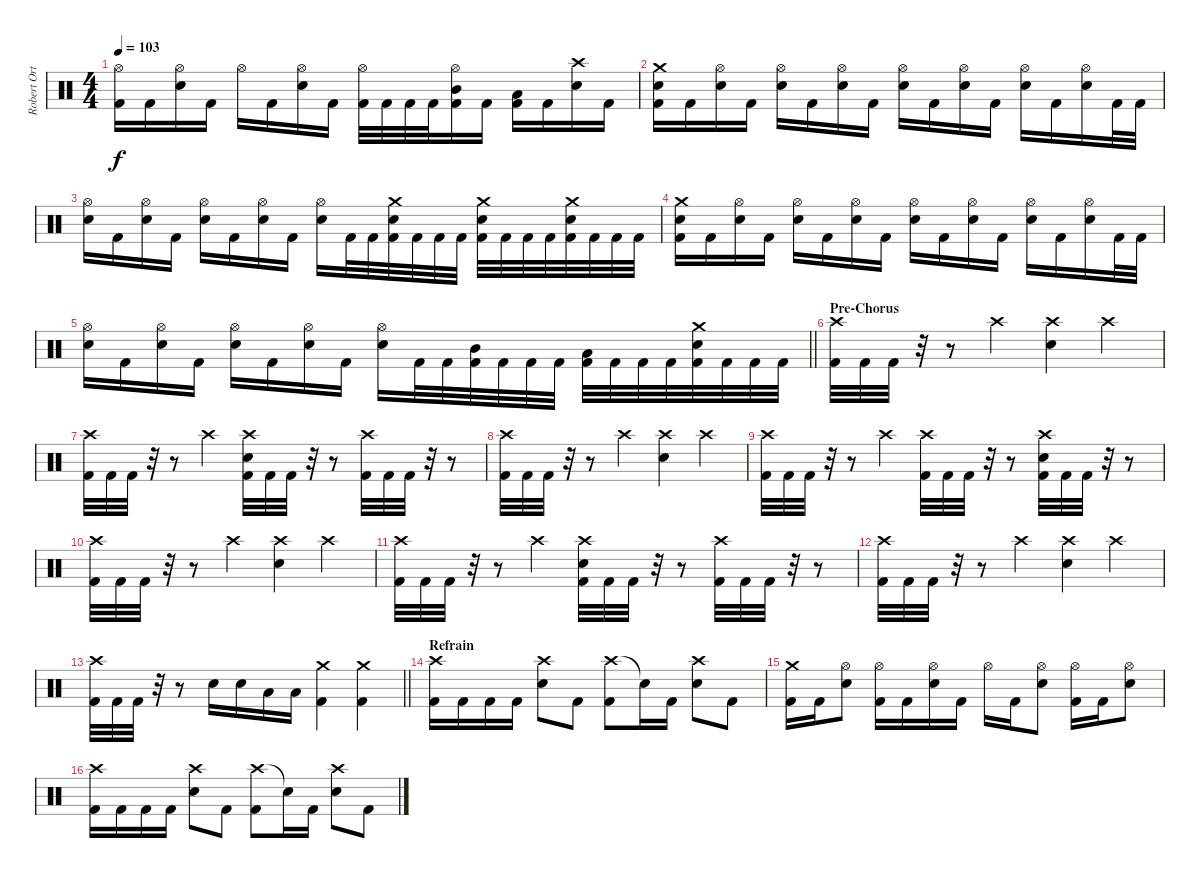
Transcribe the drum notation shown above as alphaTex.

\track ("Robert Ortiz - Drums" "Robert Ort") {instrument percussion}
\staff {score}
\articulation defaults
\ts (4 4)
\tempo 103
\clef neutral
\ks c
("Hi-Hat (open)" "Kick (hit) 2").16{dy f} "Kick (hit) 2".16 ("Hi-Hat (open)" "Electric Snare (hit)").16 "Kick (hit) 2".16 "Hi-Hat (open)".16 "Kick (hit) 2".16 ("Hi-Hat (open)" "Electric Snare (hit)").16 "Kick (hit) 2".16 ("Hi-Hat (open)" "Kick (hit) 2").32 "Kick (hit) 2".32 "Kick (hit) 2".32 "Kick (hit) 2".32 ("Hi-Hat (open)" "Mid Tom (hit)" "Kick (hit) 2").16 "Kick (hit) 2".16 ("Low Tom (hit)" "Kick (hit) 2").16 "Kick (hit) 2".16 ("Crash high (hit)" "Electric Snare (hit)").16 "Kick (hit) 2".16 |
("Crash medium (hit)" "Electric Snare (hit)" "Kick (hit) 2").16 "Kick (hit) 2".16 ("Hi-Hat (open)" "Electric Snare (hit)").16 "Kick (hit) 2".16 ("Hi-Hat (open)" "Electric Snare (hit)").16 "Kick (hit) 2".16 ("Hi-Hat (open)" "Electric Snare (hit)").16 "Kick (hit) 2".16 ("Hi-Hat (open)" "Electric Snare (hit)").16 "Kick (hit) 2".16 ("Hi-Hat (open)" "Electric Snare (hit)").16 "Kick (hit) 2".16 ("Hi-Hat (open)" "Electric Snare (hit)").16 "Kick (hit) 2".16 ("Hi-Hat (open)" "Electric Snare (hit)").16 "Kick (hit) 2".32 "Kick (hit) 2".32 |
("Hi-Hat (open)" "Electric Snare (hit)").16 "Kick (hit) 2".16 ("Hi-Hat (open)" "Electric Snare (hit)").16 "Kick (hit) 2".16 ("Hi-Hat (open)" "Electric Snare (hit)").16 "Kick (hit) 2".16 ("Hi-Hat (open)" "Electric Snare (hit)").16 "Kick (hit) 2".16 ("Hi-Hat (open)" "Electric Snare (hit)").16 "Kick (hit) 2".32 "Kick (hit) 2".32 ("Crash medium (hit)" "Electric Snare (hit)" "Kick (hit) 2").32 "Kick (hit) 2".32 "Kick (hit) 2".32 "Kick (hit) 2".32 ("Crash medium (hit)" "Electric Snare (hit)" "Kick (hit) 2").32 "Kick (hit) 2".32 "Kick (hit) 2".32 "Kick (hit) 2".32 ("Crash medium (hit)" "Electric Snare (hit)" "Kick (hit) 2").32 "Kick (hit) 2".32 "Kick (hit) 2".32 "Kick (hit) 2".32 |
("Crash medium (hit)" "Electric Snare (hit)" "Kick (hit) 2").16 "Kick (hit) 2".16 ("Hi-Hat (open)" "Electric Snare (hit)").16 "Kick (hit) 2".16 ("Hi-Hat (open)" "Electric Snare (hit)").16 "Kick (hit) 2".16 ("Hi-Hat (open)" "Electric Snare (hit)").16 "Kick (hit) 2".16 ("Hi-Hat (open)" "Electric Snare (hit)").16 "Kick (hit) 2".16 ("Hi-Hat (open)" "Electric Snare (hit)").16 "Kick (hit) 2".16 ("Hi-Hat (open)" "Electric Snare (hit)").16 "Kick (hit) 2".16 ("Hi-Hat (open)" "Electric Snare (hit)").16 "Kick (hit) 2".32 "Kick (hit) 2".32 |
\barLineRight lightlight
("Hi-Hat (open)" "Electric Snare (hit)").16 "Kick (hit) 2".16 ("Hi-Hat (open)" "Electric Snare (hit)").16 "Kick (hit) 2".16 ("Hi-Hat (open)" "Electric Snare (hit)").16 "Kick (hit) 2".16 ("Hi-Hat (open)" "Electric Snare (hit)").16 "Kick (hit) 2".16 ("Hi-Hat (open)" "Electric Snare (hit)").16 "Kick (hit) 2".32 "Kick (hit) 2".32 ("Mid Tom (hit)" "Kick (hit) 2").32 "Kick (hit) 2".32 "Kick (hit) 2".32 "Kick (hit) 2".32 ("Low Tom (hit)" "Kick (hit) 2").32 "Kick (hit) 2".32 "Kick (hit) 2".32 "Kick (hit) 2".32 ("Crash medium (hit)" "Electric Snare (hit)" "Kick (hit) 2").32 "Kick (hit) 2".32 "Kick (hit) 2".32 "Kick (hit) 2".32 |
\section ("" "Pre-Chorus")
("Crash high (hit)" "Kick (hit) 2").32 "Kick (hit) 2".32 "Kick (hit) 2".32 r.32 r.8 "Crash high (hit)".4 ("Crash high (hit)" "Electric Snare (hit)").4 "Crash high (hit)".4 |
("Crash high (hit)" "Kick (hit) 2").32 "Kick (hit) 2".32 "Kick (hit) 2".32 r.32 r.8 "Crash high (hit)".4 ("Crash high (hit)" "Electric Snare (hit)" "Kick (hit) 2").32 "Kick (hit) 2".32 "Kick (hit) 2".32 r.32 r.8 ("Crash high (hit)" "Kick (hit) 2").32 "Kick (hit) 2".32 "Kick (hit) 2".32 r.32 r.8 |
("Crash high (hit)" "Kick (hit) 2").32 "Kick (hit) 2".32 "Kick (hit) 2".32 r.32 r.8 "Crash high (hit)".4 ("Crash high (hit)" "Electric Snare (hit)").4 "Crash high (hit)".4 |
("Crash high (hit)" "Kick (hit) 2").32 "Kick (hit) 2".32 "Kick (hit) 2".32 r.32 r.8 "Crash high (hit)".4 ("Crash high (hit)" "Kick (hit) 2").32 "Kick (hit) 2".32 "Kick (hit) 2".32 r.32 r.8 ("Crash high (hit)" "Electric Snare (hit)" "Kick (hit) 2").32 "Kick (hit) 2".32 "Kick (hit) 2".32 r.32 r.8 |
("Crash high (hit)" "Kick (hit) 2").32 "Kick (hit) 2".32 "Kick (hit) 2".32 r.32 r.8 "Crash high (hit)".4 ("Crash high (hit)" "Electric Snare (hit)").4 "Crash high (hit)".4 |
("Crash high (hit)" "Kick (hit) 2").32 "Kick (hit) 2".32 "Kick (hit) 2".32 r.32 r.8 "Crash high (hit)".4 ("Crash high (hit)" "Electric Snare (hit)" "Kick (hit) 2").32 "Kick (hit) 2".32 "Kick (hit) 2".32 r.32 r.8 ("Crash high (hit)" "Kick (hit) 2").32 "Kick (hit) 2".32 "Kick (hit) 2".32 r.32 r.8 |
("Crash high (hit)" "Kick (hit) 2").32 "Kick (hit) 2".32 "Kick (hit) 2".32 r.32 r.8 "Crash high (hit)".4 ("Crash high (hit)" "Electric Snare (hit)").4 "Crash high (hit)".4 |
\barLineRight lightlight
("Crash high (hit)" "Kick (hit) 2").32 "Kick (hit) 2".32 "Kick (hit) 2".32 r.32 r.8 "Electric Snare (hit)".16 "Electric Snare (hit)".16 "Low Tom (hit)".16 "Low Tom (hit)".16 ("Crash medium (hit)" "Kick (hit) 2").4 ("Crash medium (hit)" "Kick (hit) 2").4 |
\section ("" "Refrain")
("Crash high (hit)" "Kick (hit) 2").16 "Kick (hit) 2".16 "Kick (hit) 2".16 "Kick (hit) 2".16 ("Crash high (hit)" "Electric Snare (hit)").8 "Kick (hit) 2".8 ("Crash high (hit)" "Kick (hit) 2").8 "Snare (hit)"{t}.16 "Kick (hit) 2".16 ("Crash high (hit)" "Electric Snare (hit)").8 "Kick (hit) 2".8 |
("Crash medium (hit)" "Kick (hit) 2").16 "Kick (hit) 2".16 ("Hi-Hat (open)" "Electric Snare (hit)").8 ("Hi-Hat (open)" "Kick (hit) 2").16 "Kick (hit) 2".16 ("Hi-Hat (open)" "Electric Snare (hit)").16 "Kick (hit) 2".16 "Hi-Hat (open)".16 "Kick (hit) 2".16 ("Hi-Hat (open)" "Electric Snare (hit)").8 ("Hi-Hat (open)" "Kick (hit) 2").16 "Kick (hit) 2".16 ("Hi-Hat (open)" "Electric Snare (hit)").8 |
("Crash high (hit)" "Kick (hit) 2").16 "Kick (hit) 2".16 "Kick (hit) 2".16 "Kick (hit) 2".16 ("Crash high (hit)" "Electric Snare (hit)").8 "Kick (hit) 2".8 ("Crash high (hit)" "Kick (hit) 2").8 "Snare (hit)"{t}.16 "Kick (hit) 2".16 ("Crash high (hit)" "Electric Snare (hit)").8 "Kick (hit) 2".8
